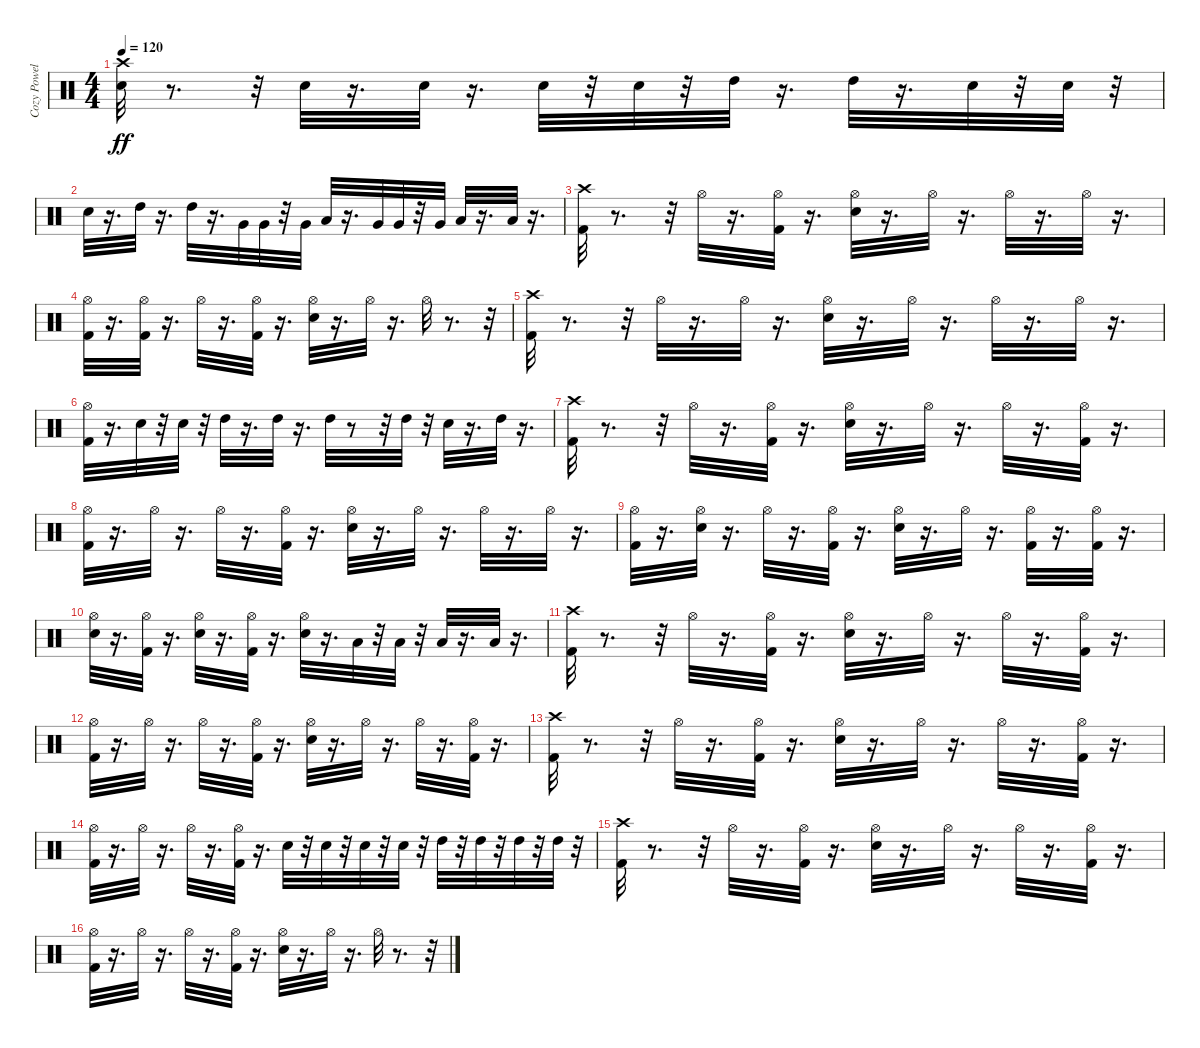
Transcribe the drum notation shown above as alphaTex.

\track ("Cozy Powel" "Cozy Powel") {instrument percussion}
\staff {score}
\articulation defaults
\ts (4 4)
\tempo 120
\clef neutral
\ks c
("Snare (hit) 2" "Crash high (hit)").32{dy ff} r.8{d} r.32 "Snare (hit) 2".32 r.16{d} "Snare (hit) 2".32 r.16{d} "Snare (hit) 2".32 r.32 "Snare (hit) 2".32 r.32 "High Tom (hit)".32 r.16{d} "High Tom (hit)".32 r.16{d} "Snare (hit) 2".32 r.32 "Snare (hit) 2".32 r.32 |
"Snare (hit) 2".32 r.16{d} "High Tom (hit)".32 r.16{d} "High Tom (hit)".32 r.16{d} "Very Low Tom (hit)".32 "Very Low Tom (hit)".32 r.32 "Very Low Tom (hit)".32 "Low Floor Tom (hit)".32 r.16{d} "Very Low Tom (hit)".32 "Very Low Tom (hit)".32 r.32 "Very Low Tom (hit)".32 "Low Floor Tom (hit)".32 r.16{d} "Low Floor Tom (hit)".32 r.16{d} |
("Kick (hit) 2" "Crash high (hit)").32 r.8{d} r.32 "Hi-Hat (open)".32 r.16{d} ("Kick (hit) 2" "Hi-Hat (open)").32 r.16{d} ("Snare (hit) 2" "Hi-Hat (open)").32 r.16{d} "Hi-Hat (open)".32 r.16{d} "Hi-Hat (open)".32 r.16{d} "Hi-Hat (open)".32 r.16{d} |
("Kick (hit) 2" "Hi-Hat (open)").32 r.16{d} ("Kick (hit) 2" "Hi-Hat (open)").32 r.16{d} "Hi-Hat (open)".32 r.16{d} ("Kick (hit) 2" "Hi-Hat (open)").32 r.16{d} ("Snare (hit) 2" "Hi-Hat (open)").32 r.16{d} "Hi-Hat (open)".32 r.16{d} "Hi-Hat (open)".32 r.8{d} r.32 |
("Kick (hit) 2" "Crash high (hit)").32 r.8{d} r.32 "Hi-Hat (open)".32 r.16{d} "Hi-Hat (open)".32 r.16{d} ("Snare (hit) 2" "Hi-Hat (open)").32 r.16{d} "Hi-Hat (open)".32 r.16{d} "Hi-Hat (open)".32 r.16{d} "Hi-Hat (open)".32 r.16{d} |
("Kick (hit) 2" "Hi-Hat (open)").32 r.16{d} "Snare (hit) 2".32 r.32 "Snare (hit) 2".32 r.32 "High Tom (hit)".32 r.16{d} "High Tom (hit)".32 r.16{d} "High Tom (hit)".32 r.8 r.32 "High Tom (hit)".32 r.32 "Snare (hit) 2".32 r.16{d} "High Tom (hit)".32 r.16{d} |
("Kick (hit) 2" "Crash high (hit)").32 r.8{d} r.32 "Hi-Hat (open)".32 r.16{d} ("Kick (hit) 2" "Hi-Hat (open)").32 r.16{d} ("Snare (hit) 2" "Hi-Hat (open)").32 r.16{d} "Hi-Hat (open)".32 r.16{d} "Hi-Hat (open)".32 r.16{d} ("Kick (hit) 2" "Hi-Hat (open)").32 r.16{d} |
("Kick (hit) 2" "Hi-Hat (open)").32 r.16{d} "Hi-Hat (open)".32 r.16{d} "Hi-Hat (open)".32 r.16{d} ("Kick (hit) 2" "Hi-Hat (open)").32 r.16{d} ("Snare (hit) 2" "Hi-Hat (open)").32 r.16{d} "Hi-Hat (open)".32 r.16{d} "Hi-Hat (open)".32 r.16{d} "Hi-Hat (open)".32 r.16{d} |
("Kick (hit) 2" "Hi-Hat (open)").32 r.16{d} ("Snare (hit) 2" "Hi-Hat (open)").32 r.16{d} "Hi-Hat (open)".32 r.16{d} ("Kick (hit) 2" "Hi-Hat (open)").32 r.16{d} ("Snare (hit) 2" "Hi-Hat (open)").32 r.16{d} "Hi-Hat (open)".32 r.16{d} ("Kick (hit) 2" "Hi-Hat (open)").32 r.16{d} ("Kick (hit) 2" "Hi-Hat (open)").32 r.16{d} |
("Snare (hit) 2" "Hi-Hat (open)").32 r.16{d} ("Kick (hit) 2" "Hi-Hat (open)").32 r.16{d} ("Snare (hit) 2" "Hi-Hat (open)").32 r.16{d} ("Kick (hit) 2" "Hi-Hat (open)").32 r.16{d} ("Snare (hit) 2" "Hi-Hat (open)").32 r.16{d} "Low Floor Tom (hit)".32 r.32 "Low Floor Tom (hit)".32 r.32 "Low Floor Tom (hit)".32 r.16{d} "Low Floor Tom (hit)".32 r.16{d} |
("Crash high (hit)" "Kick (hit) 2").32 r.8{d} r.32 "Hi-Hat (open)".32 r.16{d} ("Kick (hit) 2" "Hi-Hat (open)").32 r.16{d} ("Snare (hit) 2" "Hi-Hat (open)").32 r.16{d} "Hi-Hat (open)".32 r.16{d} "Hi-Hat (open)".32 r.16{d} ("Kick (hit) 2" "Hi-Hat (open)").32 r.16{d} |
("Kick (hit) 2" "Hi-Hat (open)").32 r.16{d} "Hi-Hat (open)".32 r.16{d} "Hi-Hat (open)".32 r.16{d} ("Kick (hit) 2" "Hi-Hat (open)").32 r.16{d} ("Snare (hit) 2" "Hi-Hat (open)").32 r.16{d} "Hi-Hat (open)".32 r.16{d} "Hi-Hat (open)".32 r.16{d} ("Kick (hit) 2" "Hi-Hat (open)").32 r.16{d} |
("Kick (hit) 2" "Crash high (hit)").32 r.8{d} r.32 "Hi-Hat (open)".32 r.16{d} ("Kick (hit) 2" "Hi-Hat (open)").32 r.16{d} ("Snare (hit) 2" "Hi-Hat (open)").32 r.16{d} "Hi-Hat (open)".32 r.16{d} "Hi-Hat (open)".32 r.16{d} ("Kick (hit) 2" "Hi-Hat (open)").32 r.16{d} |
("Kick (hit) 2" "Hi-Hat (open)").32 r.16{d} "Hi-Hat (open)".32 r.16{d} "Hi-Hat (open)".32 r.16{d} ("Kick (hit) 2" "Hi-Hat (open)").32 r.16{d} "Snare (hit) 2".32 r.32 "Snare (hit) 2".32 r.32 "Snare (hit) 2".32 r.32 "Snare (hit) 2".32 r.32 "High Tom (hit)".32 r.32 "High Tom (hit)".32 r.32 "High Tom (hit)".32 r.32 "High Tom (hit)".32 r.32 |
("Crash high (hit)" "Kick (hit) 2").32 r.8{d} r.32 "Hi-Hat (open)".32 r.16{d} ("Kick (hit) 2" "Hi-Hat (open)").32 r.16{d} ("Snare (hit) 2" "Hi-Hat (open)").32 r.16{d} "Hi-Hat (open)".32 r.16{d} "Hi-Hat (open)".32 r.16{d} ("Kick (hit) 2" "Hi-Hat (open)").32 r.16{d} |
("Kick (hit) 2" "Hi-Hat (open)").32 r.16{d} "Hi-Hat (open)".32 r.16{d} "Hi-Hat (open)".32 r.16{d} ("Kick (hit) 2" "Hi-Hat (open)").32 r.16{d} ("Snare (hit) 2" "Hi-Hat (open)").32 r.16{d} "Hi-Hat (open)".32 r.16{d} "Hi-Hat (open)".32 r.8{d} r.32
